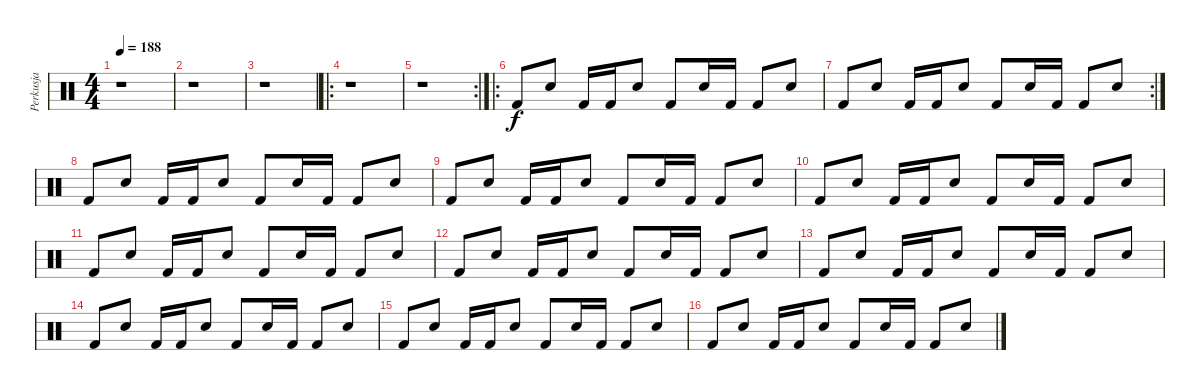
\track ("Perkusja" "Perkusja") {instrument percussion}
\staff {score}
\articulation defaults
\ts (4 4)
\tempo 188
\clef neutral
\ks c
r.1{dy f} |
r.1 |
r.1 |
\ro
r.1 |
\rc 2
r.1 |
\ro "Kick (hit) 2".8 "Snare (hit) 2".8 "Kick (hit) 2".16 "Kick (hit) 2".16 "Snare (hit) 2".8 "Kick (hit) 2".8 "Snare (hit) 2".16 "Kick (hit) 2".16 "Kick (hit) 2".8 "Snare (hit) 2".8
|
\rc 2 "Kick (hit) 2".8 "Snare (hit) 2".8 "Kick (hit) 2".16 "Kick (hit) 2".16 "Snare (hit) 2".8 "Kick (hit) 2".8 "Snare (hit) 2".16 "Kick (hit) 2".16 "Kick (hit) 2".8 "Snare (hit) 2".8
|
"Kick (hit) 2".8 "Snare (hit) 2".8 "Kick (hit) 2".16 "Kick (hit) 2".16 "Snare (hit) 2".8 "Kick (hit) 2".8 "Snare (hit) 2".16 "Kick (hit) 2".16 "Kick (hit) 2".8 "Snare (hit) 2".8 |
"Kick (hit) 2".8 "Snare (hit) 2".8 "Kick (hit) 2".16 "Kick (hit) 2".16 "Snare (hit) 2".8 "Kick (hit) 2".8 "Snare (hit) 2".16 "Kick (hit) 2".16 "Kick (hit) 2".8 "Snare (hit) 2".8 |
"Kick (hit) 2".8 "Snare (hit) 2".8 "Kick (hit) 2".16 "Kick (hit) 2".16 "Snare (hit) 2".8 "Kick (hit) 2".8 "Snare (hit) 2".16 "Kick (hit) 2".16 "Kick (hit) 2".8 "Snare (hit) 2".8 |
"Kick (hit) 2".8 "Snare (hit) 2".8 "Kick (hit) 2".16 "Kick (hit) 2".16 "Snare (hit) 2".8 "Kick (hit) 2".8 "Snare (hit) 2".16 "Kick (hit) 2".16 "Kick (hit) 2".8 "Snare (hit) 2".8 |
"Kick (hit) 2".8 "Snare (hit) 2".8 "Kick (hit) 2".16 "Kick (hit) 2".16 "Snare (hit) 2".8 "Kick (hit) 2".8 "Snare (hit) 2".16 "Kick (hit) 2".16 "Kick (hit) 2".8 "Snare (hit) 2".8 |
"Kick (hit) 2".8 "Snare (hit) 2".8 "Kick (hit) 2".16 "Kick (hit) 2".16 "Snare (hit) 2".8 "Kick (hit) 2".8 "Snare (hit) 2".16 "Kick (hit) 2".16 "Kick (hit) 2".8 "Snare (hit) 2".8 |
"Kick (hit) 2".8 "Snare (hit) 2".8 "Kick (hit) 2".16 "Kick (hit) 2".16 "Snare (hit) 2".8 "Kick (hit) 2".8 "Snare (hit) 2".16 "Kick (hit) 2".16 "Kick (hit) 2".8 "Snare (hit) 2".8 |
"Kick (hit) 2".8 "Snare (hit) 2".8 "Kick (hit) 2".16 "Kick (hit) 2".16 "Snare (hit) 2".8 "Kick (hit) 2".8 "Snare (hit) 2".16 "Kick (hit) 2".16 "Kick (hit) 2".8 "Snare (hit) 2".8 |
"Kick (hit) 2".8 "Snare (hit) 2".8 "Kick (hit) 2".16 "Kick (hit) 2".16 "Snare (hit) 2".8 "Kick (hit) 2".8 "Snare (hit) 2".16 "Kick (hit) 2".16 "Kick (hit) 2".8 "Snare (hit) 2".8
